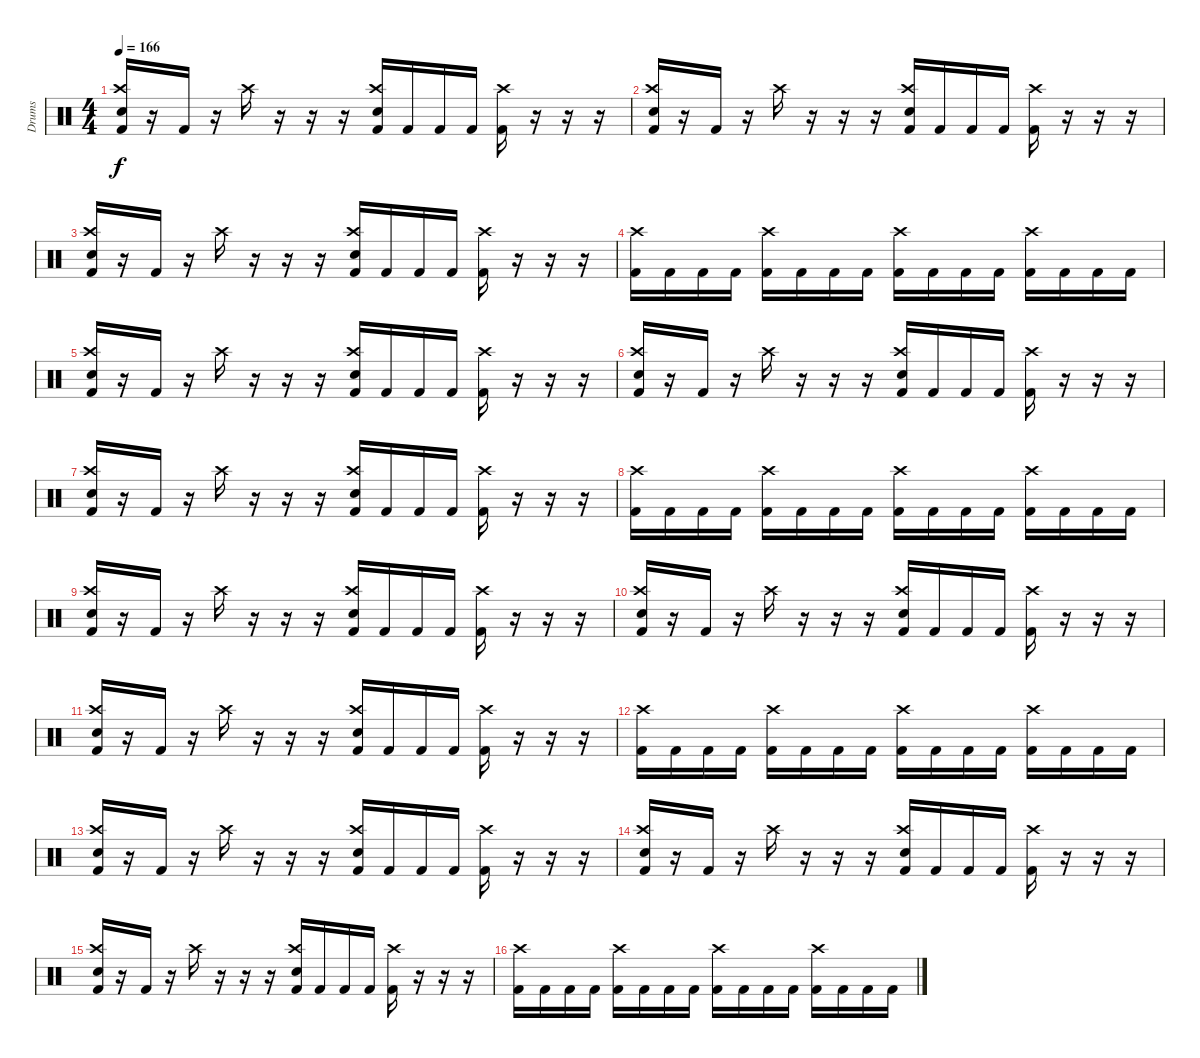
\track ("Drums" "Drums") {instrument percussion}
\staff {score}
\articulation defaults
\ts (4 4)
\tempo 166
\tempo 139
\tempo 166
\clef neutral
\ks c
("Electric Snare (hit)" "Crash high (hit)" "Kick (hit) 2").16{dy f} r.16 "Kick (hit) 2".16 r.16 "Crash high (hit)".16 r.16 r.16 r.16 ("Electric Snare (hit)" "Crash high (hit)" "Kick (hit) 2").16 "Kick (hit) 2".16 "Kick (hit) 2".16 "Kick (hit) 2".16 ("Crash high (hit)" "Kick (hit) 2").16 r.16 r.16 r.16 |
("Electric Snare (hit)" "Crash high (hit)" "Kick (hit) 2").16 r.16 "Kick (hit) 2".16 r.16 "Crash high (hit)".16 r.16 r.16 r.16 ("Electric Snare (hit)" "Crash high (hit)" "Kick (hit) 2").16 "Kick (hit) 2".16 "Kick (hit) 2".16 "Kick (hit) 2".16 ("Crash high (hit)" "Kick (hit) 2").16 r.16 r.16 r.16 |
("Electric Snare (hit)" "Crash high (hit)" "Kick (hit) 2").16 r.16 "Kick (hit) 2".16 r.16 "Crash high (hit)".16 r.16 r.16 r.16 ("Electric Snare (hit)" "Crash high (hit)" "Kick (hit) 2").16 "Kick (hit) 2".16 "Kick (hit) 2".16 "Kick (hit) 2".16 ("Crash high (hit)" "Kick (hit) 2").16 r.16 r.16 r.16 |
("Crash high (hit)" "Kick (hit) 2").16 "Kick (hit) 2".16 "Kick (hit) 2".16 "Kick (hit) 2".16 ("Crash high (hit)" "Kick (hit) 2").16 "Kick (hit) 2".16 "Kick (hit) 2".16 "Kick (hit) 2".16 ("Crash high (hit)" "Kick (hit) 2").16 "Kick (hit) 2".16 "Kick (hit) 2".16 "Kick (hit) 2".16 ("Crash high (hit)" "Kick (hit) 2").16 "Kick (hit) 2".16 "Kick (hit) 2".16 "Kick (hit) 2".16 |
("Electric Snare (hit)" "Crash high (hit)" "Kick (hit) 2").16 r.16 "Kick (hit) 2".16 r.16 "Crash high (hit)".16 r.16 r.16 r.16 ("Electric Snare (hit)" "Crash high (hit)" "Kick (hit) 2").16 "Kick (hit) 2".16 "Kick (hit) 2".16 "Kick (hit) 2".16 ("Crash high (hit)" "Kick (hit) 2").16 r.16 r.16 r.16 |
("Electric Snare (hit)" "Crash high (hit)" "Kick (hit) 2").16 r.16 "Kick (hit) 2".16 r.16 "Crash high (hit)".16 r.16 r.16 r.16 ("Electric Snare (hit)" "Crash high (hit)" "Kick (hit) 2").16 "Kick (hit) 2".16 "Kick (hit) 2".16 "Kick (hit) 2".16 ("Crash high (hit)" "Kick (hit) 2").16 r.16 r.16 r.16 |
("Electric Snare (hit)" "Crash high (hit)" "Kick (hit) 2").16 r.16 "Kick (hit) 2".16 r.16 "Crash high (hit)".16 r.16 r.16 r.16 ("Electric Snare (hit)" "Crash high (hit)" "Kick (hit) 2").16 "Kick (hit) 2".16 "Kick (hit) 2".16 "Kick (hit) 2".16 ("Crash high (hit)" "Kick (hit) 2").16 r.16 r.16 r.16 |
("Crash high (hit)" "Kick (hit) 2").16 "Kick (hit) 2".16 "Kick (hit) 2".16 "Kick (hit) 2".16 ("Crash high (hit)" "Kick (hit) 2").16 "Kick (hit) 2".16 "Kick (hit) 2".16 "Kick (hit) 2".16 ("Crash high (hit)" "Kick (hit) 2").16 "Kick (hit) 2".16 "Kick (hit) 2".16 "Kick (hit) 2".16 ("Crash high (hit)" "Kick (hit) 2").16 "Kick (hit) 2".16 "Kick (hit) 2".16 "Kick (hit) 2".16 |
("Electric Snare (hit)" "Crash high (hit)" "Kick (hit) 2").16 r.16 "Kick (hit) 2".16 r.16 "Crash high (hit)".16 r.16 r.16 r.16 ("Electric Snare (hit)" "Crash high (hit)" "Kick (hit) 2").16 "Kick (hit) 2".16 "Kick (hit) 2".16 "Kick (hit) 2".16 ("Crash high (hit)" "Kick (hit) 2").16 r.16 r.16 r.16 |
("Electric Snare (hit)" "Crash high (hit)" "Kick (hit) 2").16 r.16 "Kick (hit) 2".16 r.16 "Crash high (hit)".16 r.16 r.16 r.16 ("Electric Snare (hit)" "Crash high (hit)" "Kick (hit) 2").16 "Kick (hit) 2".16 "Kick (hit) 2".16 "Kick (hit) 2".16 ("Crash high (hit)" "Kick (hit) 2").16 r.16 r.16 r.16 |
("Electric Snare (hit)" "Crash high (hit)" "Kick (hit) 2").16 r.16 "Kick (hit) 2".16 r.16 "Crash high (hit)".16 r.16 r.16 r.16 ("Electric Snare (hit)" "Crash high (hit)" "Kick (hit) 2").16 "Kick (hit) 2".16 "Kick (hit) 2".16 "Kick (hit) 2".16 ("Crash high (hit)" "Kick (hit) 2").16 r.16 r.16 r.16 |
("Crash high (hit)" "Kick (hit) 2").16 "Kick (hit) 2".16 "Kick (hit) 2".16 "Kick (hit) 2".16 ("Crash high (hit)" "Kick (hit) 2").16 "Kick (hit) 2".16 "Kick (hit) 2".16 "Kick (hit) 2".16 ("Crash high (hit)" "Kick (hit) 2").16 "Kick (hit) 2".16 "Kick (hit) 2".16 "Kick (hit) 2".16 ("Crash high (hit)" "Kick (hit) 2").16 "Kick (hit) 2".16 "Kick (hit) 2".16 "Kick (hit) 2".16 |
("Electric Snare (hit)" "Crash high (hit)" "Kick (hit) 2").16 r.16 "Kick (hit) 2".16 r.16 "Crash high (hit)".16 r.16 r.16 r.16 ("Electric Snare (hit)" "Crash high (hit)" "Kick (hit) 2").16 "Kick (hit) 2".16 "Kick (hit) 2".16 "Kick (hit) 2".16 ("Crash high (hit)" "Kick (hit) 2").16 r.16 r.16 r.16 |
("Electric Snare (hit)" "Crash high (hit)" "Kick (hit) 2").16 r.16 "Kick (hit) 2".16 r.16 "Crash high (hit)".16 r.16 r.16 r.16 ("Electric Snare (hit)" "Crash high (hit)" "Kick (hit) 2").16 "Kick (hit) 2".16 "Kick (hit) 2".16 "Kick (hit) 2".16 ("Crash high (hit)" "Kick (hit) 2").16 r.16 r.16 r.16 |
("Electric Snare (hit)" "Crash high (hit)" "Kick (hit) 2").16 r.16 "Kick (hit) 2".16 r.16 "Crash high (hit)".16 r.16 r.16 r.16 ("Electric Snare (hit)" "Crash high (hit)" "Kick (hit) 2").16 "Kick (hit) 2".16 "Kick (hit) 2".16 "Kick (hit) 2".16 ("Crash high (hit)" "Kick (hit) 2").16 r.16 r.16 r.16 |
("Crash high (hit)" "Kick (hit) 2").16 "Kick (hit) 2".16 "Kick (hit) 2".16 "Kick (hit) 2".16 ("Crash high (hit)" "Kick (hit) 2").16 "Kick (hit) 2".16 "Kick (hit) 2".16 "Kick (hit) 2".16 ("Crash high (hit)" "Kick (hit) 2").16 "Kick (hit) 2".16 "Kick (hit) 2".16 "Kick (hit) 2".16 ("Crash high (hit)" "Kick (hit) 2").16 "Kick (hit) 2".16 "Kick (hit) 2".16 "Kick (hit) 2".16
